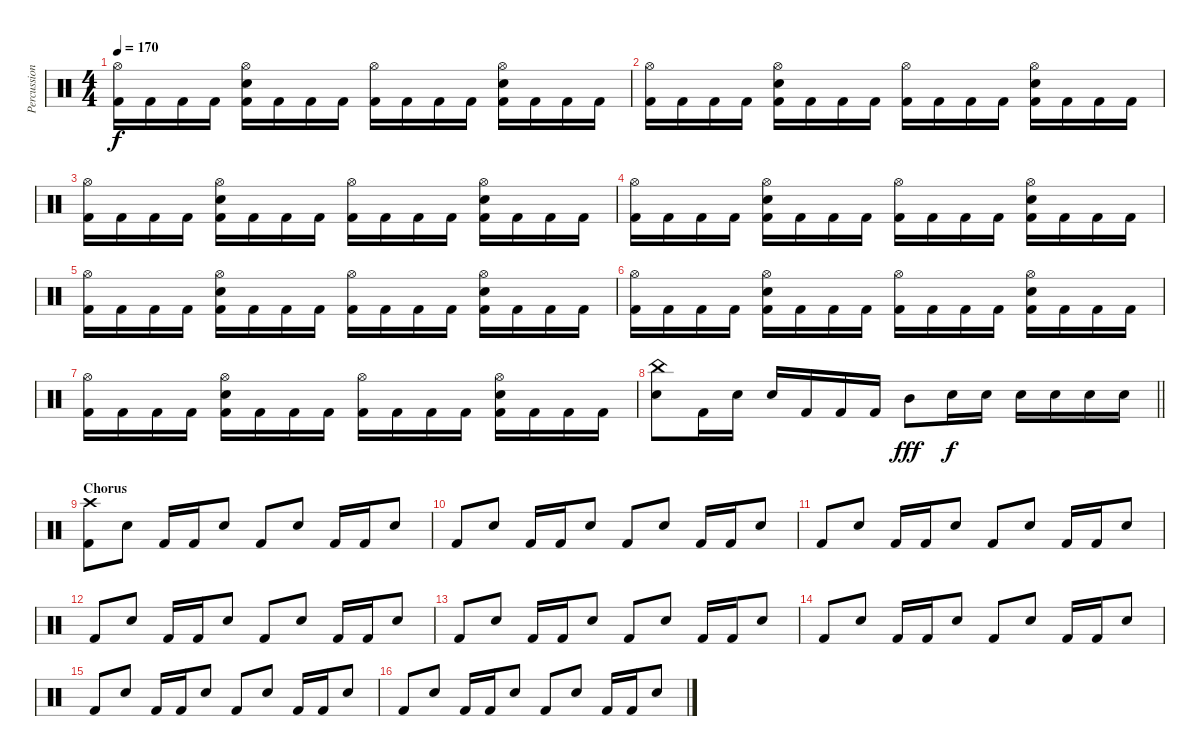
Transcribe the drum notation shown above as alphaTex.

\track ("Percussions" "Percussion") {instrument percussion}
\staff {score}
\articulation defaults
\ts (4 4)
\tempo 170
\clef neutral
\ks c
("Hi-Hat (open)" "Kick (hit) 2").16{dy f} "Kick (hit) 2".16 "Kick (hit) 2".16 "Kick (hit) 2".16 ("Hi-Hat (open)" "Electric Snare (hit)" "Kick (hit) 2").16 "Kick (hit) 2".16 "Kick (hit) 2".16 "Kick (hit) 2".16 ("Hi-Hat (open)" "Kick (hit) 2").16 "Kick (hit) 2".16 "Kick (hit) 2".16 "Kick (hit) 2".16 ("Hi-Hat (open)" "Electric Snare (hit)" "Kick (hit) 2").16 "Kick (hit) 2".16 "Kick (hit) 2".16 "Kick (hit) 2".16 |
("Hi-Hat (open)" "Kick (hit) 2").16 "Kick (hit) 2".16 "Kick (hit) 2".16 "Kick (hit) 2".16 ("Hi-Hat (open)" "Electric Snare (hit)" "Kick (hit) 2").16 "Kick (hit) 2".16 "Kick (hit) 2".16 "Kick (hit) 2".16 ("Hi-Hat (open)" "Kick (hit) 2").16 "Kick (hit) 2".16 "Kick (hit) 2".16 "Kick (hit) 2".16 ("Hi-Hat (open)" "Electric Snare (hit)" "Kick (hit) 2").16 "Kick (hit) 2".16 "Kick (hit) 2".16 "Kick (hit) 2".16 |
("Hi-Hat (open)" "Kick (hit) 2").16 "Kick (hit) 2".16 "Kick (hit) 2".16 "Kick (hit) 2".16 ("Hi-Hat (open)" "Electric Snare (hit)" "Kick (hit) 2").16 "Kick (hit) 2".16 "Kick (hit) 2".16 "Kick (hit) 2".16 ("Hi-Hat (open)" "Kick (hit) 2").16 "Kick (hit) 2".16 "Kick (hit) 2".16 "Kick (hit) 2".16 ("Hi-Hat (open)" "Electric Snare (hit)" "Kick (hit) 2").16 "Kick (hit) 2".16 "Kick (hit) 2".16 "Kick (hit) 2".16 |
("Hi-Hat (open)" "Kick (hit) 2").16 "Kick (hit) 2".16 "Kick (hit) 2".16 "Kick (hit) 2".16 ("Hi-Hat (open)" "Electric Snare (hit)" "Kick (hit) 2").16 "Kick (hit) 2".16 "Kick (hit) 2".16 "Kick (hit) 2".16 ("Hi-Hat (open)" "Kick (hit) 2").16 "Kick (hit) 2".16 "Kick (hit) 2".16 "Kick (hit) 2".16 ("Hi-Hat (open)" "Electric Snare (hit)" "Kick (hit) 2").16 "Kick (hit) 2".16 "Kick (hit) 2".16 "Kick (hit) 2".16 |
("Hi-Hat (open)" "Kick (hit) 2").16 "Kick (hit) 2".16 "Kick (hit) 2".16 "Kick (hit) 2".16 ("Hi-Hat (open)" "Electric Snare (hit)" "Kick (hit) 2").16 "Kick (hit) 2".16 "Kick (hit) 2".16 "Kick (hit) 2".16 ("Hi-Hat (open)" "Kick (hit) 2").16 "Kick (hit) 2".16 "Kick (hit) 2".16 "Kick (hit) 2".16 ("Hi-Hat (open)" "Electric Snare (hit)" "Kick (hit) 2").16 "Kick (hit) 2".16 "Kick (hit) 2".16 "Kick (hit) 2".16 |
("Hi-Hat (open)" "Kick (hit) 2").16 "Kick (hit) 2".16 "Kick (hit) 2".16 "Kick (hit) 2".16 ("Hi-Hat (open)" "Electric Snare (hit)" "Kick (hit) 2").16 "Kick (hit) 2".16 "Kick (hit) 2".16 "Kick (hit) 2".16 ("Hi-Hat (open)" "Kick (hit) 2").16 "Kick (hit) 2".16 "Kick (hit) 2".16 "Kick (hit) 2".16 ("Hi-Hat (open)" "Electric Snare (hit)" "Kick (hit) 2").16 "Kick (hit) 2".16 "Kick (hit) 2".16 "Kick (hit) 2".16 |
("Hi-Hat (open)" "Kick (hit) 2").16 "Kick (hit) 2".16 "Kick (hit) 2".16 "Kick (hit) 2".16 ("Hi-Hat (open)" "Electric Snare (hit)" "Kick (hit) 2").16 "Kick (hit) 2".16 "Kick (hit) 2".16 "Kick (hit) 2".16 ("Hi-Hat (open)" "Kick (hit) 2").16 "Kick (hit) 2".16 "Kick (hit) 2".16 "Kick (hit) 2".16 ("Hi-Hat (open)" "Electric Snare (hit)" "Kick (hit) 2").16 "Kick (hit) 2".16 "Kick (hit) 2".16 "Kick (hit) 2".16 |
\barLineRight lightlight
("China (hit)" "Electric Snare (hit)").8 "Kick (hit) 2".16 "Electric Snare (hit)".16 "Electric Snare (hit)".16 "Kick (hit) 2".16 "Kick (hit) 2".16 "Kick (hit) 2".16 "Mid Tom (hit)".8{dy fff} "Electric Snare (hit)".16{dy f} "Electric Snare (hit)".16 "Electric Snare (hit)".16 "Electric Snare (hit)".16 "Electric Snare (hit)".16 "Electric Snare (hit)".16 |
\section ("" "Chorus")
("Crash high (hit)" "Kick (hit) 2").8 "Electric Snare (hit)".8 "Kick (hit) 2".16 "Kick (hit) 2".16 "Electric Snare (hit)".8 "Kick (hit) 2".8 "Electric Snare (hit)".8 "Kick (hit) 2".16 "Kick (hit) 2".16 "Electric Snare (hit)".8 |
"Kick (hit) 2".8 "Electric Snare (hit)".8 "Kick (hit) 2".16 "Kick (hit) 2".16 "Electric Snare (hit)".8 "Kick (hit) 2".8 "Electric Snare (hit)".8 "Kick (hit) 2".16 "Kick (hit) 2".16 "Electric Snare (hit)".8 |
"Kick (hit) 2".8 "Electric Snare (hit)".8 "Kick (hit) 2".16 "Kick (hit) 2".16 "Electric Snare (hit)".8 "Kick (hit) 2".8 "Electric Snare (hit)".8 "Kick (hit) 2".16 "Kick (hit) 2".16 "Electric Snare (hit)".8 |
"Kick (hit) 2".8 "Electric Snare (hit)".8 "Kick (hit) 2".16 "Kick (hit) 2".16 "Electric Snare (hit)".8 "Kick (hit) 2".8 "Electric Snare (hit)".8 "Kick (hit) 2".16 "Kick (hit) 2".16 "Electric Snare (hit)".8 |
"Kick (hit) 2".8 "Electric Snare (hit)".8 "Kick (hit) 2".16 "Kick (hit) 2".16 "Electric Snare (hit)".8 "Kick (hit) 2".8 "Electric Snare (hit)".8 "Kick (hit) 2".16 "Kick (hit) 2".16 "Electric Snare (hit)".8 |
"Kick (hit) 2".8 "Electric Snare (hit)".8 "Kick (hit) 2".16 "Kick (hit) 2".16 "Electric Snare (hit)".8 "Kick (hit) 2".8 "Electric Snare (hit)".8 "Kick (hit) 2".16 "Kick (hit) 2".16 "Electric Snare (hit)".8 |
"Kick (hit) 2".8 "Electric Snare (hit)".8 "Kick (hit) 2".16 "Kick (hit) 2".16 "Electric Snare (hit)".8 "Kick (hit) 2".8 "Electric Snare (hit)".8 "Kick (hit) 2".16 "Kick (hit) 2".16 "Electric Snare (hit)".8 |
"Kick (hit) 2".8 "Electric Snare (hit)".8 "Kick (hit) 2".16 "Kick (hit) 2".16 "Electric Snare (hit)".8 "Kick (hit) 2".8 "Electric Snare (hit)".8 "Kick (hit) 2".16 "Kick (hit) 2".16 "Electric Snare (hit)".8
